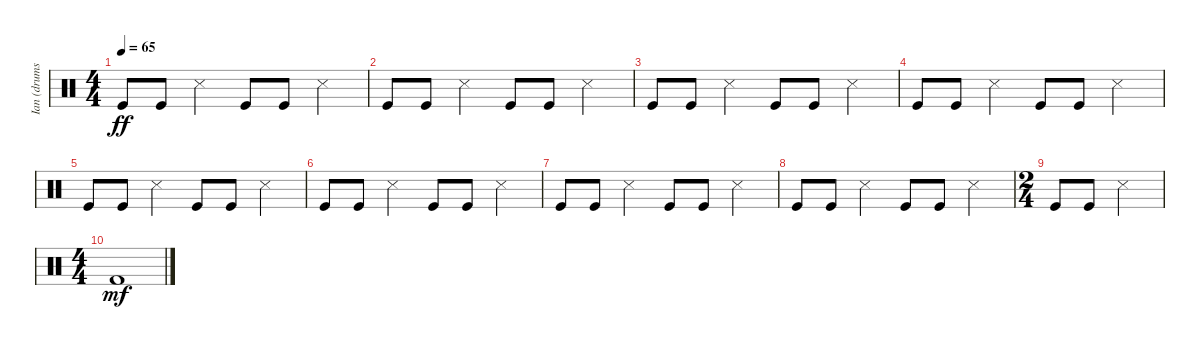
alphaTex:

\track ("Ian (drums)" "Ian (drums") {instrument percussion}
\staff {score}
\articulation defaults
\ts (4 4)
\tempo 65
\clef neutral
\ks c "Kick (hit)".8{dy ff} "Kick (hit)".8 "Snare (side stick) 3".4 "Kick (hit)".8 "Kick (hit)".8 "Snare (side stick) 3".4
|
"Kick (hit)".8 "Kick (hit)".8 "Snare (side stick) 3".4 "Kick (hit)".8 "Kick (hit)".8 "Snare (side stick) 3".4 |
"Kick (hit)".8 "Kick (hit)".8 "Snare (side stick) 3".4 "Kick (hit)".8 "Kick (hit)".8 "Snare (side stick) 3".4 |
"Kick (hit)".8 "Kick (hit)".8 "Snare (side stick) 3".4 "Kick (hit)".8 "Kick (hit)".8 "Snare (side stick) 3".4 |
"Kick (hit)".8 "Kick (hit)".8 "Snare (side stick) 3".4 "Kick (hit)".8 "Kick (hit)".8 "Snare (side stick) 3".4 |
"Kick (hit)".8 "Kick (hit)".8 "Snare (side stick) 3".4 "Kick (hit)".8 "Kick (hit)".8 "Snare (side stick) 3".4 |
"Kick (hit)".8 "Kick (hit)".8 "Snare (side stick) 3".4 "Kick (hit)".8 "Kick (hit)".8 "Snare (side stick) 3".4 |
"Kick (hit)".8 "Kick (hit)".8 "Snare (side stick) 3".4 "Kick (hit)".8 "Kick (hit)".8 "Snare (side stick) 3".4 |
\ts (2 4)
"Kick (hit)".8 "Kick (hit)".8 "Snare (side stick) 3".4 |
\ts (4 4)
"Kick (hit) 2".1{dy mf}
